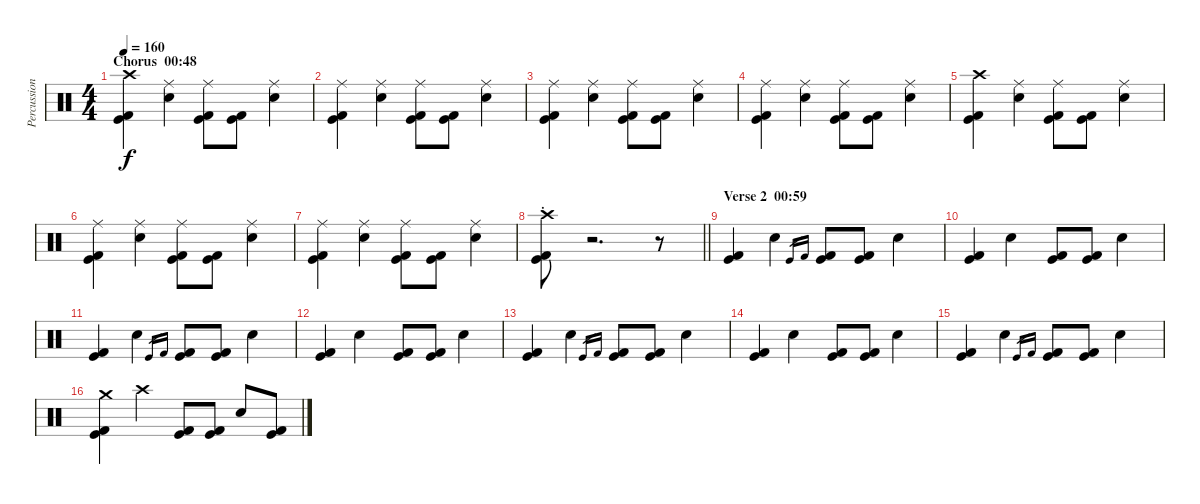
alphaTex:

\track ("Percussion" "Percussion") {instrument percussion}
\staff {score}
\articulation defaults
\ts (4 4)
\section ("" "Chorus  00:48")
\tempo 160
\clef neutral
\ks c
("Crash high (hit)" "Kick (hit)" "Kick (hit) 2").4{dy f} ("Ride (middle)" "Electric Snare (hit)").4 ("Ride (middle)" "Kick (hit)" "Kick (hit) 2").8 ("Kick (hit)" "Kick (hit) 2").8 ("Ride (middle)" "Electric Snare (hit)").4 |
("Ride (middle)" "Kick (hit)" "Kick (hit) 2").4 ("Ride (middle)" "Electric Snare (hit)").4 ("Ride (middle)" "Kick (hit)" "Kick (hit) 2").8 ("Kick (hit)" "Kick (hit) 2").8 ("Ride (middle)" "Electric Snare (hit)").4 |
("Ride (middle)" "Kick (hit)" "Kick (hit) 2").4 ("Ride (middle)" "Electric Snare (hit)").4 ("Ride (middle)" "Kick (hit)" "Kick (hit) 2").8 ("Kick (hit)" "Kick (hit) 2").8 ("Ride (middle)" "Electric Snare (hit)").4 |
("Ride (middle)" "Kick (hit)" "Kick (hit) 2").4 ("Ride (middle)" "Electric Snare (hit)").4 ("Ride (middle)" "Kick (hit)" "Kick (hit) 2").8 ("Kick (hit)" "Kick (hit) 2").8 ("Ride (middle)" "Electric Snare (hit)").4 |
("Crash high (hit)" "Kick (hit)" "Kick (hit) 2").4 ("Ride (middle)" "Electric Snare (hit)").4 ("Ride (middle)" "Kick (hit)" "Kick (hit) 2").8 ("Kick (hit)" "Kick (hit) 2").8 ("Ride (middle)" "Electric Snare (hit)").4 |
("Ride (middle)" "Kick (hit)" "Kick (hit) 2").4 ("Ride (middle)" "Electric Snare (hit)").4 ("Ride (middle)" "Kick (hit)" "Kick (hit) 2").8 ("Kick (hit)" "Kick (hit) 2").8 ("Ride (middle)" "Electric Snare (hit)").4 |
("Ride (middle)" "Kick (hit)" "Kick (hit) 2").4 ("Ride (middle)" "Electric Snare (hit)").4 ("Ride (middle)" "Kick (hit)" "Kick (hit) 2").8 ("Kick (hit)" "Kick (hit) 2").8 ("Ride (middle)" "Electric Snare (hit)").4 |
\barLineRight lightlight
("Crash high (hit)" "Kick (hit)" "Kick (hit) 2"{st}).8 r.2{d} r.8 |
\section ("" "Verse 2  00:59")
("Kick (hit)" "Kick (hit) 2").4 "Electric Snare (hit)".4 "Kick (hit)".16{gr} "Kick (hit) 2".16{gr} ("Kick (hit)" "Kick (hit) 2").8 ("Kick (hit)" "Kick (hit) 2").8 "Electric Snare (hit)".4 |
("Kick (hit)" "Kick (hit) 2").4 "Electric Snare (hit)".4 ("Kick (hit)" "Kick (hit) 2").8 ("Kick (hit)" "Kick (hit) 2").8 "Electric Snare (hit)".4 |
("Kick (hit)" "Kick (hit) 2").4 "Electric Snare (hit)".4 "Kick (hit)".16{gr} "Kick (hit) 2".16{gr} ("Kick (hit)" "Kick (hit) 2").8 ("Kick (hit)" "Kick (hit) 2").8 "Electric Snare (hit)".4 |
("Kick (hit)" "Kick (hit) 2").4 "Electric Snare (hit)".4 ("Kick (hit)" "Kick (hit) 2").8 ("Kick (hit)" "Kick (hit) 2").8 "Electric Snare (hit)".4 |
("Kick (hit)" "Kick (hit) 2").4 "Electric Snare (hit)".4 "Kick (hit)".16{gr} "Kick (hit) 2".16{gr} ("Kick (hit)" "Kick (hit) 2").8 ("Kick (hit)" "Kick (hit) 2").8 "Electric Snare (hit)".4 |
("Kick (hit)" "Kick (hit) 2").4 "Electric Snare (hit)".4 ("Kick (hit)" "Kick (hit) 2").8 ("Kick (hit)" "Kick (hit) 2").8 "Electric Snare (hit)".4 |
("Kick (hit)" "Kick (hit) 2").4 "Electric Snare (hit)".4 "Kick (hit)".16{gr} "Kick (hit) 2".16{gr} ("Kick (hit)" "Kick (hit) 2").8 ("Kick (hit)" "Kick (hit) 2").8 "Electric Snare (hit)".4 |
("Crash medium (hit)" "Kick (hit)" "Kick (hit) 2").4 "Crash high (hit)".4 ("Kick (hit)" "Kick (hit) 2").8 ("Kick (hit)" "Kick (hit) 2").8 "Electric Snare (hit)".8 ("Kick (hit)" "Kick (hit) 2").8
